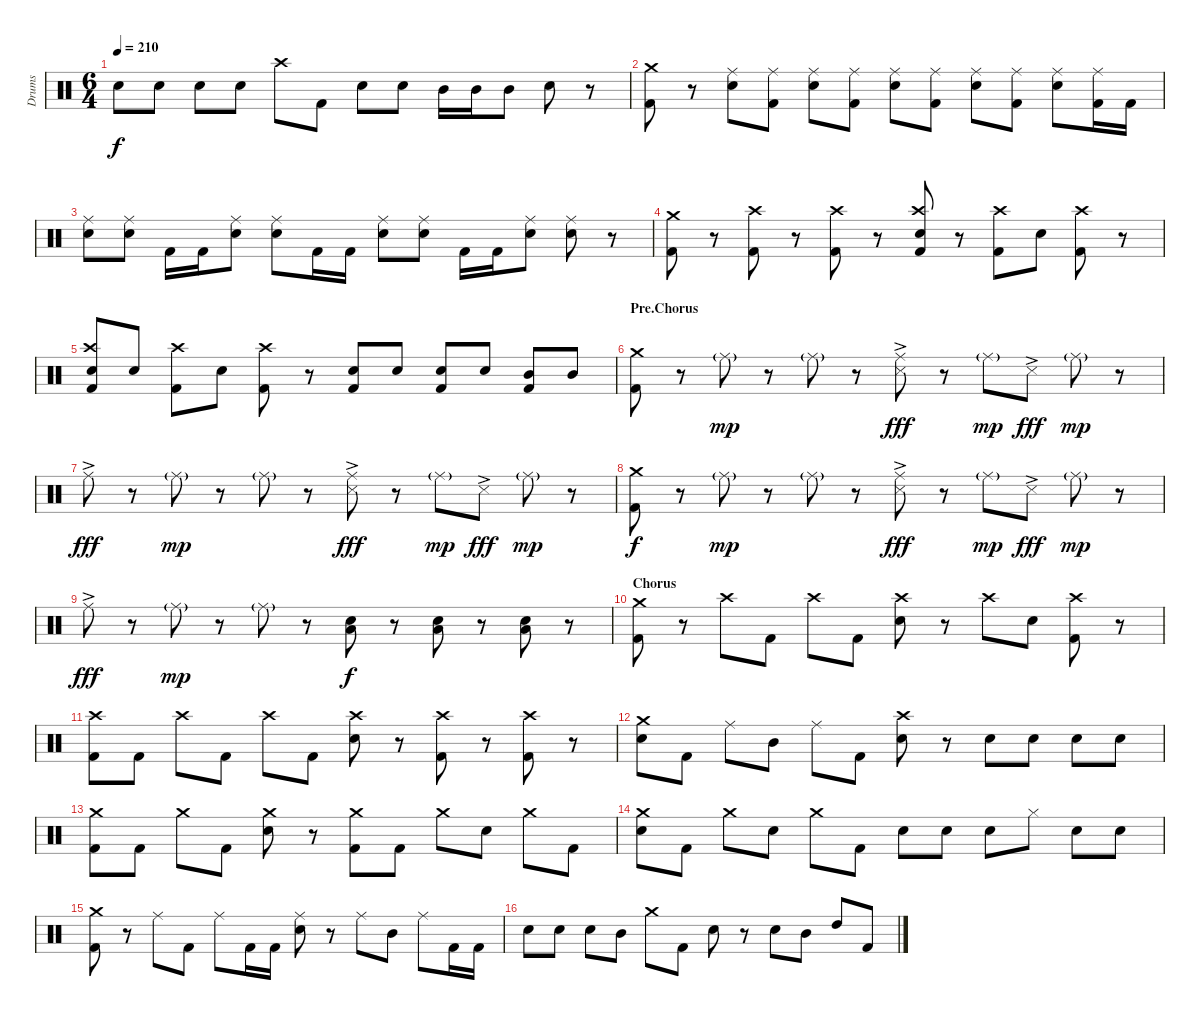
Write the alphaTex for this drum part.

\track ("Drums" "Drums") {instrument percussion}
\staff {score}
\articulation defaults
\ts (6 4)
\tempo 210
\clef neutral
\ks c "Electric Snare (hit)".8{dy f} "Electric Snare (hit)".8 "Electric Snare (hit)".8 "Electric Snare (hit)".8 "Crash high (hit)".8 "Kick (hit) 2".8 "Electric Snare (hit)".8 "Electric Snare (hit)".8 "Mid Tom (hit)".16 "Mid Tom (hit)".16 "Mid Tom (hit)".8 "Electric Snare (hit)".8
r.8 |
("Crash medium (hit)" "Kick (hit) 2").8 r.8 ("Ride (middle)" "Electric Snare (hit)").8 ("Ride (middle)" "Kick (hit) 2").8 ("Ride (middle)" "Electric Snare (hit)").8 ("Ride (middle)" "Kick (hit) 2").8 ("Ride (middle)" "Electric Snare (hit)").8 ("Ride (middle)" "Kick (hit) 2").8 ("Ride (middle)" "Electric Snare (hit)").8 ("Ride (middle)" "Kick (hit) 2").8 ("Ride (middle)" "Electric Snare (hit)").8 ("Ride (middle)" "Kick (hit) 2").16 "Kick (hit) 2".16 |
("Ride (middle)" "Electric Snare (hit)").8 ("Ride (middle)" "Electric Snare (hit)").8 "Kick (hit) 2".16 "Kick (hit) 2".16 ("Ride (middle)" "Electric Snare (hit)").8 ("Ride (middle)" "Electric Snare (hit)").8 "Kick (hit) 2".16 "Kick (hit) 2".16 ("Ride (middle)" "Electric Snare (hit)").8 ("Ride (middle)" "Electric Snare (hit)").8 "Kick (hit) 2".16 "Kick (hit) 2".16 ("Ride (middle)" "Electric Snare (hit)").8 ("Ride (middle)" "Electric Snare (hit)").8 r.8 |
("Crash medium (hit)" "Kick (hit) 2").8 r.8 ("Crash high (hit)" "Kick (hit) 2").8 r.8 ("Crash high (hit)" "Kick (hit) 2").8 r.8 ("Crash high (hit)" "Electric Snare (hit)" "Kick (hit) 2").8 r.8 ("Crash high (hit)" "Kick (hit) 2").8 "Electric Snare (hit)".8 ("Crash high (hit)" "Kick (hit) 2").8 r.8 |
("Crash high (hit)" "Electric Snare (hit)" "Kick (hit) 2").8 "Electric Snare (hit)".8 ("Crash high (hit)" "Kick (hit) 2").8 "Electric Snare (hit)".8 ("Crash high (hit)" "Kick (hit) 2").8 r.8 ("Electric Snare (hit)" "Kick (hit) 2").8 "Electric Snare (hit)".8 ("Electric Snare (hit)" "Kick (hit) 2").8 "Electric Snare (hit)".8 ("Mid Tom (hit)" "Kick (hit) 2").8 "Mid Tom (hit)".8 |
\section ("" "Pre.Chorus")
("Crash medium (hit)" "Kick (hit) 2").8 r.8 "Ride (middle)"{g}.8{dy mp} r.8 "Ride (middle)"{g}.8 r.8 ("Ride (middle)"{ac} "Snare (side stick) 3"{ac}).8{dy fff} r.8 "Ride (middle)"{g}.8{dy mp} "Snare (side stick) 3"{ac}.8{dy fff} "Ride (middle)"{g}.8{dy mp} r.8 |
"Ride (middle)"{ac}.8{dy fff} r.8 "Ride (middle)"{g}.8{dy mp} r.8 "Ride (middle)"{g}.8 r.8 ("Ride (middle)"{ac} "Snare (side stick) 3"{ac}).8{dy fff} r.8 "Ride (middle)"{g}.8{dy mp} "Snare (side stick) 3"{ac}.8{dy fff} "Ride (middle)"{g}.8{dy mp} r.8 |
("Crash medium (hit)" "Kick (hit) 2").8{dy f} r.8 "Ride (middle)"{g}.8{dy mp} r.8 "Ride (middle)"{g}.8 r.8 ("Ride (middle)"{ac} "Snare (side stick) 3"{ac}).8{dy fff} r.8 "Ride (middle)"{g}.8{dy mp} "Snare (side stick) 3"{ac}.8{dy fff} "Ride (middle)"{g}.8{dy mp} r.8 |
"Ride (middle)"{ac}.8{dy fff} r.8 "Ride (middle)"{g}.8{dy mp} r.8 "Ride (middle)"{g}.8 r.8 ("Electric Snare (hit)" "Low Floor Tom (hit)").8{dy f} r.8 ("Electric Snare (hit)" "Low Floor Tom (hit)").8 r.8 ("Electric Snare (hit)" "Low Floor Tom (hit)").8 r.8 |
\section ("" "Chorus")
("Crash medium (hit)" "Kick (hit) 2").8 r.8 "Crash high (hit)".8 "Kick (hit) 2".8 "Crash high (hit)".8 "Kick (hit) 2".8 ("Crash high (hit)" "Electric Snare (hit)").8 r.8 "Crash high (hit)".8 "Electric Snare (hit)".8 ("Crash high (hit)" "Kick (hit) 2").8 r.8 |
("Crash high (hit)" "Kick (hit) 2").8 "Kick (hit) 2".8 "Crash high (hit)".8 "Kick (hit) 2".8 "Crash high (hit)".8 "Kick (hit) 2".8 ("Crash high (hit)" "Electric Snare (hit)").8 r.8 ("Crash high (hit)" "Kick (hit) 2").8 r.8 ("Crash high (hit)" "Kick (hit) 2").8 r.8 |
("Crash medium (hit)" "Electric Snare (hit)").8 "Kick (hit) 2".8 "Ride (middle)".8 "Mid Tom (hit)".8 "Ride (middle)".8 "Kick (hit) 2".8 ("Crash high (hit)" "Electric Snare (hit)").8 r.8 "Electric Snare (hit)".8 "Electric Snare (hit)".8 "Electric Snare (hit)".8 "Electric Snare (hit)".8 |
("Crash medium (hit)" "Kick (hit) 2").8 "Kick (hit) 2".8 "Crash medium (hit)".8 "Kick (hit) 2".8 ("Crash medium (hit)" "Electric Snare (hit)").8 r.8 ("Crash medium (hit)" "Kick (hit) 2").8 "Kick (hit) 2".8 "Crash medium (hit)".8 "Electric Snare (hit)".8 "Crash medium (hit)".8 "Kick (hit) 2".8 |
("Crash medium (hit)" "Electric Snare (hit)").8 "Kick (hit) 2".8 "Crash medium (hit)".8 "Electric Snare (hit)".8 "Crash medium (hit)".8 "Kick (hit) 2".8 "Electric Snare (hit)".8 "Electric Snare (hit)".8 "Electric Snare (hit)".8 "Hi-Hat (closed)".8 "Electric Snare (hit)".8 "Electric Snare (hit)".8 |
("Crash medium (hit)" "Kick (hit) 2").8 r.8 "Ride (middle)".8 "Kick (hit) 2".8 "Ride (middle)".8 "Kick (hit) 2".16 "Kick (hit) 2".16 ("Ride (middle)" "Electric Snare (hit)").8 r.8 "Ride (middle)".8 "Mid Tom (hit)".8 "Ride (middle)".8 "Kick (hit) 2".16 "Kick (hit) 2".16 |
"Electric Snare (hit)".8 "Electric Snare (hit)".8 "Electric Snare (hit)".8 "Mid Tom (hit)".8 "Crash medium (hit)".8 "Kick (hit) 2".8 "Electric Snare (hit)".8 r.8 "Electric Snare (hit)".8 "Mid Tom (hit)".8 "High Tom (hit)".8 "Kick (hit) 2".8
